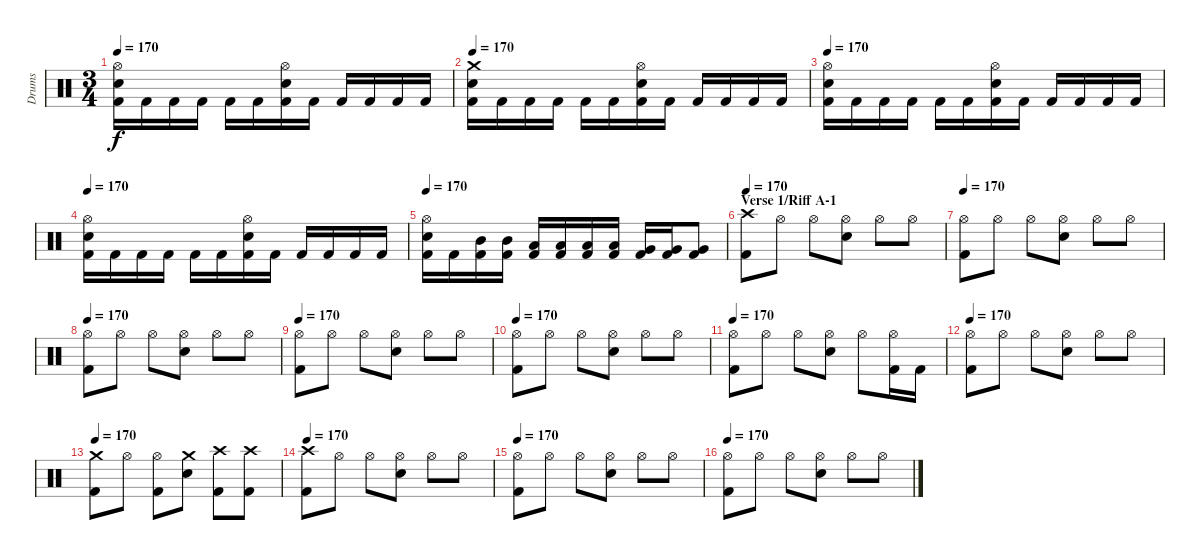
\track ("Drums" "Drums") {instrument percussion}
\staff {score}
\articulation defaults
\ts (3 4)
\tempo 170
\clef neutral
\ks c
("Hi-Hat (open)" "Electric Snare (hit)" "Kick (hit) 2").16{dy f} "Kick (hit) 2".16 "Kick (hit) 2".16 "Kick (hit) 2".16 "Kick (hit) 2".16 "Kick (hit) 2".16 ("Hi-Hat (open)" "Electric Snare (hit)" "Kick (hit) 2").16 "Kick (hit) 2".16 "Kick (hit) 2".16 "Kick (hit) 2".16 "Kick (hit) 2".16 "Kick (hit) 2".16 |
\tempo 170
("Crash medium (hit)" "Electric Snare (hit)" "Kick (hit) 2").16 "Kick (hit) 2".16 "Kick (hit) 2".16 "Kick (hit) 2".16 "Kick (hit) 2".16 "Kick (hit) 2".16 ("Hi-Hat (open)" "Electric Snare (hit)" "Kick (hit) 2").16 "Kick (hit) 2".16 "Kick (hit) 2".16 "Kick (hit) 2".16 "Kick (hit) 2".16 "Kick (hit) 2".16 |
\tempo 170
("Hi-Hat (open)" "Electric Snare (hit)" "Kick (hit) 2").16 "Kick (hit) 2".16 "Kick (hit) 2".16 "Kick (hit) 2".16 "Kick (hit) 2".16 "Kick (hit) 2".16 ("Hi-Hat (open)" "Electric Snare (hit)" "Kick (hit) 2").16 "Kick (hit) 2".16 "Kick (hit) 2".16 "Kick (hit) 2".16 "Kick (hit) 2".16 "Kick (hit) 2".16 |
\tempo 170
("Hi-Hat (open)" "Electric Snare (hit)" "Kick (hit) 2").16 "Kick (hit) 2".16 "Kick (hit) 2".16 "Kick (hit) 2".16 "Kick (hit) 2".16 "Kick (hit) 2".16 ("Hi-Hat (open)" "Electric Snare (hit)" "Kick (hit) 2").16 "Kick (hit) 2".16 "Kick (hit) 2".16 "Kick (hit) 2".16 "Kick (hit) 2".16 "Kick (hit) 2".16 |
\tempo 170
("Hi-Hat (open)" "Electric Snare (hit)" "Kick (hit) 2").16 "Kick (hit) 2".16 ("Mid Tom (hit)" "Kick (hit) 2").16 ("Mid Tom (hit)" "Kick (hit) 2").16 ("Low Tom (hit)" "Kick (hit) 2").16 ("Low Tom (hit)" "Kick (hit) 2").16 ("Low Tom (hit)" "Kick (hit) 2").16 ("Low Tom (hit)" "Kick (hit) 2").16 ("Very Low Tom (hit)" "Kick (hit) 2").16 ("Very Low Tom (hit)" "Kick (hit) 2").16 ("Very Low Tom (hit)" "Kick (hit) 2").8 |
\section ("" "Verse 1/Riff A-1")
\tempo 170
("Crash high (hit)" "Kick (hit) 2").8 "Hi-Hat (open)".8 "Hi-Hat (open)".8 ("Hi-Hat (open)" "Electric Snare (hit)").8 "Hi-Hat (open)".8 "Hi-Hat (open)".8 |
\tempo 170
("Hi-Hat (open)" "Kick (hit) 2").8 "Hi-Hat (open)".8 "Hi-Hat (open)".8 ("Hi-Hat (open)" "Electric Snare (hit)").8 "Hi-Hat (open)".8 "Hi-Hat (open)".8 |
\tempo 170
("Hi-Hat (open)" "Kick (hit) 2").8 "Hi-Hat (open)".8 "Hi-Hat (open)".8 ("Hi-Hat (open)" "Electric Snare (hit)").8 "Hi-Hat (open)".8 "Hi-Hat (open)".8 |
\tempo 170
("Hi-Hat (open)" "Kick (hit) 2").8 "Hi-Hat (open)".8 "Hi-Hat (open)".8 ("Hi-Hat (open)" "Electric Snare (hit)").8 "Hi-Hat (open)".8 "Hi-Hat (open)".8 |
\tempo 170
("Hi-Hat (open)" "Kick (hit) 2").8 "Hi-Hat (open)".8 "Hi-Hat (open)".8 ("Hi-Hat (open)" "Electric Snare (hit)").8 "Hi-Hat (open)".8 "Hi-Hat (open)".8 |
\tempo 170
("Hi-Hat (open)" "Kick (hit) 2").8 "Hi-Hat (open)".8 "Hi-Hat (open)".8 ("Hi-Hat (open)" "Electric Snare (hit)").8 "Hi-Hat (open)".8 ("Hi-Hat (open)" "Kick (hit) 2").16 "Kick (hit) 2".16 |
\tempo 170
("Hi-Hat (open)" "Kick (hit) 2").8 "Hi-Hat (open)".8 "Hi-Hat (open)".8 ("Hi-Hat (open)" "Electric Snare (hit)").8 "Hi-Hat (open)".8 "Hi-Hat (open)".8 |
\tempo 170
("Crash medium (hit)" "Kick (hit) 2").8 "Hi-Hat (open)".8 ("Hi-Hat (open)" "Kick (hit) 2").8 ("Crash medium (hit)" "Electric Snare (hit)").8 ("Crash high (hit)" "Kick (hit) 2").8 ("Crash high (hit)" "Kick (hit) 2").8 |
\tempo 170
("Crash high (hit)" "Kick (hit) 2").8 "Hi-Hat (open)".8 "Hi-Hat (open)".8 ("Hi-Hat (open)" "Electric Snare (hit)").8 "Hi-Hat (open)".8 "Hi-Hat (open)".8 |
\tempo 170
("Hi-Hat (open)" "Kick (hit) 2").8 "Hi-Hat (open)".8 "Hi-Hat (open)".8 ("Hi-Hat (open)" "Electric Snare (hit)").8 "Hi-Hat (open)".8 "Hi-Hat (open)".8 |
\tempo 170
("Hi-Hat (open)" "Kick (hit) 2").8 "Hi-Hat (open)".8 "Hi-Hat (open)".8 ("Hi-Hat (open)" "Electric Snare (hit)").8 "Hi-Hat (open)".8 "Hi-Hat (open)".8
